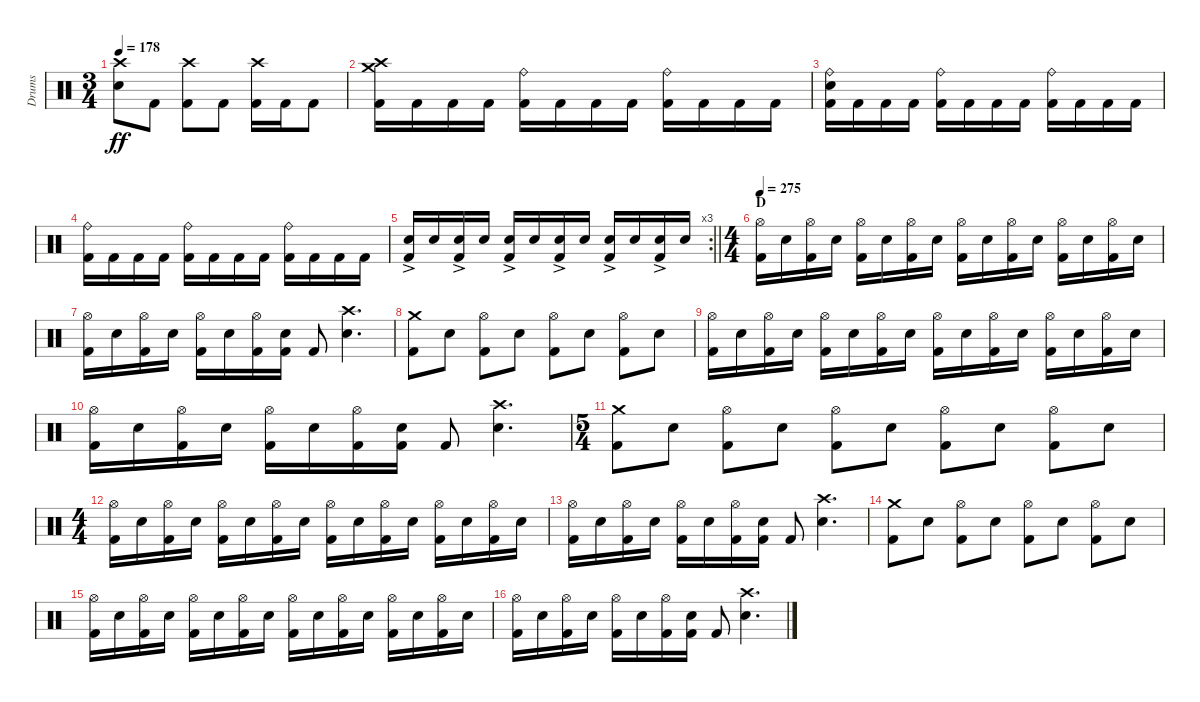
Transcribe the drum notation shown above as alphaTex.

\track ("Drums" "Drums") {instrument percussion}
\staff {score}
\articulation defaults
\ts (3 4)
\tempo 178
\clef neutral
\ks c
("Crash high (hit)" "Electric Snare (hit)").8{dy ff} "Kick (hit) 2".8 ("Crash high (hit)" "Kick (hit) 2").8 "Kick (hit) 2".8 ("Crash high (hit)" "Kick (hit) 2").16 "Kick (hit) 2".16 "Kick (hit) 2".8 |
("Crash medium (hit)" "Crash high (hit)" "Kick (hit) 2").16 "Kick (hit) 2".16 "Kick (hit) 2".16 "Kick (hit) 2".16 ("Ride (bell)" "Kick (hit) 2").16 "Kick (hit) 2".16 "Kick (hit) 2".16 "Kick (hit) 2".16 ("Ride (bell)" "Kick (hit) 2").16 "Kick (hit) 2".16 "Kick (hit) 2".16 "Kick (hit) 2".16 |
("Ride (bell)" "Electric Snare (hit)" "Kick (hit) 2").16 "Kick (hit) 2".16 "Kick (hit) 2".16 "Kick (hit) 2".16 ("Ride (bell)" "Kick (hit) 2").16 "Kick (hit) 2".16 "Kick (hit) 2".16 "Kick (hit) 2".16 ("Ride (bell)" "Kick (hit) 2").16 "Kick (hit) 2".16 "Kick (hit) 2".16 "Kick (hit) 2".16 |
("Ride (bell)" "Kick (hit) 2").16 "Kick (hit) 2".16 "Kick (hit) 2".16 "Kick (hit) 2".16 ("Ride (bell)" "Kick (hit) 2").16 "Kick (hit) 2".16 "Kick (hit) 2".16 "Kick (hit) 2".16 ("Ride (bell)" "Kick (hit) 2").16 "Kick (hit) 2".16 "Kick (hit) 2".16 "Kick (hit) 2".16 |
\rc 3
\barLineRight lightlight
("Electric Snare (hit)"{ac} "Kick (hit) 2").16 "Electric Snare (hit)".16 ("Electric Snare (hit)"{ac} "Kick (hit) 2").16 "Electric Snare (hit)".16 ("Electric Snare (hit)"{ac} "Kick (hit) 2").16 "Electric Snare (hit)".16 ("Electric Snare (hit)"{ac} "Kick (hit) 2").16 "Electric Snare (hit)".16 ("Electric Snare (hit)"{ac} "Kick (hit) 2").16 "Electric Snare (hit)".16 ("Electric Snare (hit)"{ac} "Kick (hit) 2").16 "Electric Snare (hit)".16 |
\ts (4 4)
\section ("" "D")
\tempo 275
("Hi-Hat (open)" "Kick (hit) 2").16{volume 12} "Electric Snare (hit)".16 ("Hi-Hat (open)" "Kick (hit) 2").16 "Electric Snare (hit)".16 ("Hi-Hat (open)" "Kick (hit) 2").16 "Electric Snare (hit)".16 ("Hi-Hat (open)" "Kick (hit) 2").16 "Electric Snare (hit)".16 ("Hi-Hat (open)" "Kick (hit) 2").16 "Electric Snare (hit)".16 ("Hi-Hat (open)" "Kick (hit) 2").16 "Electric Snare (hit)".16 ("Hi-Hat (open)" "Kick (hit) 2").16 "Electric Snare (hit)".16 ("Hi-Hat (open)" "Kick (hit) 2").16 "Electric Snare (hit)".16 |
("Hi-Hat (open)" "Kick (hit) 2").16 "Electric Snare (hit)".16 ("Hi-Hat (open)" "Kick (hit) 2").16 "Electric Snare (hit)".16 ("Hi-Hat (open)" "Kick (hit) 2").16 "Electric Snare (hit)".16 ("Hi-Hat (open)" "Kick (hit) 2").16 ("Electric Snare (hit)" "Kick (hit) 2").16 "Kick (hit) 2".8 ("Crash high (hit)" "Electric Snare (hit)").4{d} |
("Crash medium (hit)" "Kick (hit) 2").8 "Electric Snare (hit)".8 ("Hi-Hat (open)" "Kick (hit) 2").8 "Electric Snare (hit)".8 ("Hi-Hat (open)" "Kick (hit) 2").8 "Electric Snare (hit)".8 ("Hi-Hat (open)" "Kick (hit) 2").8 "Electric Snare (hit)".8 |
("Hi-Hat (open)" "Kick (hit) 2").16 "Electric Snare (hit)".16 ("Hi-Hat (open)" "Kick (hit) 2").16 "Electric Snare (hit)".16 ("Hi-Hat (open)" "Kick (hit) 2").16 "Electric Snare (hit)".16 ("Hi-Hat (open)" "Kick (hit) 2").16 "Electric Snare (hit)".16 ("Hi-Hat (open)" "Kick (hit) 2").16 "Electric Snare (hit)".16 ("Hi-Hat (open)" "Kick (hit) 2").16 "Electric Snare (hit)".16 ("Hi-Hat (open)" "Kick (hit) 2").16 "Electric Snare (hit)".16 ("Hi-Hat (open)" "Kick (hit) 2").16 "Electric Snare (hit)".16 |
("Hi-Hat (open)" "Kick (hit) 2").16 "Electric Snare (hit)".16 ("Hi-Hat (open)" "Kick (hit) 2").16 "Electric Snare (hit)".16 ("Hi-Hat (open)" "Kick (hit) 2").16 "Electric Snare (hit)".16 ("Hi-Hat (open)" "Kick (hit) 2").16 ("Electric Snare (hit)" "Kick (hit) 2").16 "Kick (hit) 2".8 ("Crash high (hit)" "Electric Snare (hit)").4{d} |
\ts (5 4)
("Crash medium (hit)" "Kick (hit) 2").8 "Electric Snare (hit)".8 ("Hi-Hat (open)" "Kick (hit) 2").8 "Electric Snare (hit)".8 ("Hi-Hat (open)" "Kick (hit) 2").8 "Electric Snare (hit)".8 ("Hi-Hat (open)" "Kick (hit) 2").8 "Electric Snare (hit)".8 ("Hi-Hat (open)" "Kick (hit) 2").8 "Electric Snare (hit)".8 |
\ts (4 4)
("Hi-Hat (open)" "Kick (hit) 2").16 "Electric Snare (hit)".16 ("Hi-Hat (open)" "Kick (hit) 2").16 "Electric Snare (hit)".16 ("Hi-Hat (open)" "Kick (hit) 2").16 "Electric Snare (hit)".16 ("Hi-Hat (open)" "Kick (hit) 2").16 "Electric Snare (hit)".16 ("Hi-Hat (open)" "Kick (hit) 2").16 "Electric Snare (hit)".16 ("Hi-Hat (open)" "Kick (hit) 2").16 "Electric Snare (hit)".16 ("Hi-Hat (open)" "Kick (hit) 2").16 "Electric Snare (hit)".16 ("Hi-Hat (open)" "Kick (hit) 2").16 "Electric Snare (hit)".16 |
("Hi-Hat (open)" "Kick (hit) 2").16 "Electric Snare (hit)".16 ("Hi-Hat (open)" "Kick (hit) 2").16 "Electric Snare (hit)".16 ("Hi-Hat (open)" "Kick (hit) 2").16 "Electric Snare (hit)".16 ("Hi-Hat (open)" "Kick (hit) 2").16 ("Electric Snare (hit)" "Kick (hit) 2").16 "Kick (hit) 2".8 ("Crash high (hit)" "Electric Snare (hit)").4{d} |
("Crash medium (hit)" "Kick (hit) 2").8 "Electric Snare (hit)".8 ("Hi-Hat (open)" "Kick (hit) 2").8 "Electric Snare (hit)".8 ("Hi-Hat (open)" "Kick (hit) 2").8 "Electric Snare (hit)".8 ("Hi-Hat (open)" "Kick (hit) 2").8 "Electric Snare (hit)".8 |
("Hi-Hat (open)" "Kick (hit) 2").16 "Electric Snare (hit)".16 ("Hi-Hat (open)" "Kick (hit) 2").16 "Electric Snare (hit)".16 ("Hi-Hat (open)" "Kick (hit) 2").16 "Electric Snare (hit)".16 ("Hi-Hat (open)" "Kick (hit) 2").16 "Electric Snare (hit)".16 ("Hi-Hat (open)" "Kick (hit) 2").16 "Electric Snare (hit)".16 ("Hi-Hat (open)" "Kick (hit) 2").16 "Electric Snare (hit)".16 ("Hi-Hat (open)" "Kick (hit) 2").16 "Electric Snare (hit)".16 ("Hi-Hat (open)" "Kick (hit) 2").16 "Electric Snare (hit)".16 |
("Hi-Hat (open)" "Kick (hit) 2").16 "Electric Snare (hit)".16 ("Hi-Hat (open)" "Kick (hit) 2").16 "Electric Snare (hit)".16 ("Hi-Hat (open)" "Kick (hit) 2").16 "Electric Snare (hit)".16 ("Hi-Hat (open)" "Kick (hit) 2").16 ("Electric Snare (hit)" "Kick (hit) 2").16 "Kick (hit) 2".8 ("Crash high (hit)" "Electric Snare (hit)").4{d}
